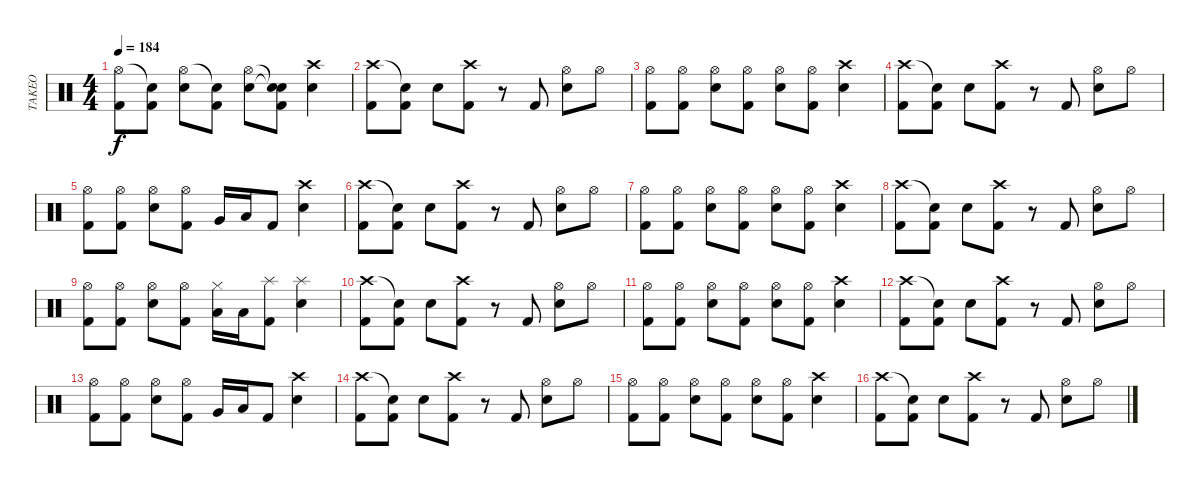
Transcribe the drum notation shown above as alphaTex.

\track ("TAKEO" "TAKEO") {instrument percussion}
\staff {score}
\articulation defaults
\ts (4 4)
\tempo 184
\clef neutral
\ks c
("Hi-Hat (open)" "Kick (hit) 2").8{dy f} ("Snare (hit)"{t} "Kick (hit) 2").8 ("Hi-Hat (open)" "Electric Snare (hit)").8 ("Snare (hit)"{t} "Kick (hit) 2").8 ("Hi-Hat (open)" "Electric Snare (hit)").8 ("Snare (hit)"{t} "Snare (hit)"{t} "Kick (hit) 2").8 ("Crash high (hit)" "Electric Snare (hit)").4 |
("Crash high (hit)" "Kick (hit) 2").8 ("Snare (hit)"{t} "Kick (hit) 2").8 "Electric Snare (hit)".8 ("Crash high (hit)" "Kick (hit) 2").8 r.8 "Kick (hit) 2".8 ("Hi-Hat (open)" "Electric Snare (hit)").8 "Hi-Hat (open)".8 |
("Hi-Hat (open)" "Kick (hit) 2").8 ("Hi-Hat (open)" "Kick (hit) 2").8 ("Hi-Hat (open)" "Electric Snare (hit)").8 ("Hi-Hat (open)" "Kick (hit) 2").8 ("Hi-Hat (open)" "Electric Snare (hit)").8 ("Hi-Hat (open)" "Kick (hit) 2").8 ("Crash high (hit)" "Electric Snare (hit)").4 |
("Crash high (hit)" "Kick (hit) 2").8 ("Snare (hit)"{t} "Kick (hit) 2").8 "Electric Snare (hit)".8 ("Crash high (hit)" "Kick (hit) 2").8 r.8 "Kick (hit) 2".8 ("Hi-Hat (open)" "Electric Snare (hit)").8 "Hi-Hat (open)".8 |
("Hi-Hat (open)" "Kick (hit) 2").8 ("Hi-Hat (open)" "Kick (hit) 2").8 ("Hi-Hat (open)" "Electric Snare (hit)").8 ("Hi-Hat (open)" "Kick (hit) 2").8 "Very Low Tom (hit)".16 "Low Tom (hit)".16 "Kick (hit) 2".8 ("Crash high (hit)" "Electric Snare (hit)").4 |
("Crash high (hit)" "Kick (hit) 2").8 ("Snare (hit)"{t} "Kick (hit) 2").8 "Electric Snare (hit)".8 ("Crash high (hit)" "Kick (hit) 2").8 r.8 "Kick (hit) 2".8 ("Hi-Hat (open)" "Electric Snare (hit)").8 "Hi-Hat (open)".8 |
("Hi-Hat (open)" "Kick (hit) 2").8 ("Hi-Hat (open)" "Kick (hit) 2").8 ("Hi-Hat (open)" "Electric Snare (hit)").8 ("Hi-Hat (open)" "Kick (hit) 2").8 ("Hi-Hat (open)" "Electric Snare (hit)").8 ("Hi-Hat (open)" "Kick (hit) 2").8 ("Crash high (hit)" "Electric Snare (hit)").4 |
("Crash high (hit)" "Kick (hit) 2").8 ("Snare (hit)"{t} "Kick (hit) 2").8 "Electric Snare (hit)".8 ("Crash high (hit)" "Kick (hit) 2").8 r.8 "Kick (hit) 2".8 ("Hi-Hat (open)" "Electric Snare (hit)").8 "Hi-Hat (open)".8 |
("Hi-Hat (open)" "Kick (hit) 2").8 ("Hi-Hat (open)" "Kick (hit) 2").8 ("Hi-Hat (open)" "Electric Snare (hit)").8 ("Hi-Hat (open)" "Kick (hit) 2").8 ("Hi-Hat (closed)" "Low Tom (hit)").16 "Low Tom (hit)".16 ("Splash (hit)" "Kick (hit) 2").8 ("Splash (hit)" "Electric Snare (hit)").4 |
("Crash high (hit)" "Kick (hit) 2").8 ("Snare (hit)"{t} "Kick (hit) 2").8 "Electric Snare (hit)".8 ("Crash high (hit)" "Kick (hit) 2").8 r.8 "Kick (hit) 2".8 ("Hi-Hat (open)" "Electric Snare (hit)").8 "Hi-Hat (open)".8 |
("Hi-Hat (open)" "Kick (hit) 2").8 ("Hi-Hat (open)" "Kick (hit) 2").8 ("Hi-Hat (open)" "Electric Snare (hit)").8 ("Hi-Hat (open)" "Kick (hit) 2").8 ("Hi-Hat (open)" "Electric Snare (hit)").8 ("Hi-Hat (open)" "Kick (hit) 2").8 ("Crash high (hit)" "Electric Snare (hit)").4 |
("Crash high (hit)" "Kick (hit) 2").8 ("Snare (hit)"{t} "Kick (hit) 2").8 "Electric Snare (hit)".8 ("Crash high (hit)" "Kick (hit) 2").8 r.8 "Kick (hit) 2".8 ("Hi-Hat (open)" "Electric Snare (hit)").8 "Hi-Hat (open)".8 |
("Hi-Hat (open)" "Kick (hit) 2").8 ("Hi-Hat (open)" "Kick (hit) 2").8 ("Hi-Hat (open)" "Electric Snare (hit)").8 ("Hi-Hat (open)" "Kick (hit) 2").8 "Very Low Tom (hit)".16 "Low Tom (hit)".16 "Kick (hit) 2".8 ("Crash high (hit)" "Electric Snare (hit)").4 |
("Crash high (hit)" "Kick (hit) 2").8 ("Snare (hit)"{t} "Kick (hit) 2").8 "Electric Snare (hit)".8 ("Crash high (hit)" "Kick (hit) 2").8 r.8 "Kick (hit) 2".8 ("Hi-Hat (open)" "Electric Snare (hit)").8 "Hi-Hat (open)".8 |
("Hi-Hat (open)" "Kick (hit) 2").8 ("Hi-Hat (open)" "Kick (hit) 2").8 ("Hi-Hat (open)" "Electric Snare (hit)").8 ("Hi-Hat (open)" "Kick (hit) 2").8 ("Hi-Hat (open)" "Electric Snare (hit)").8 ("Hi-Hat (open)" "Kick (hit) 2").8 ("Crash high (hit)" "Electric Snare (hit)").4 |
("Crash high (hit)" "Kick (hit) 2").8 ("Snare (hit)"{t} "Kick (hit) 2").8 "Electric Snare (hit)".8 ("Crash high (hit)" "Kick (hit) 2").8 r.8 "Kick (hit) 2".8 ("Hi-Hat (open)" "Electric Snare (hit)").8 "Hi-Hat (open)".8
